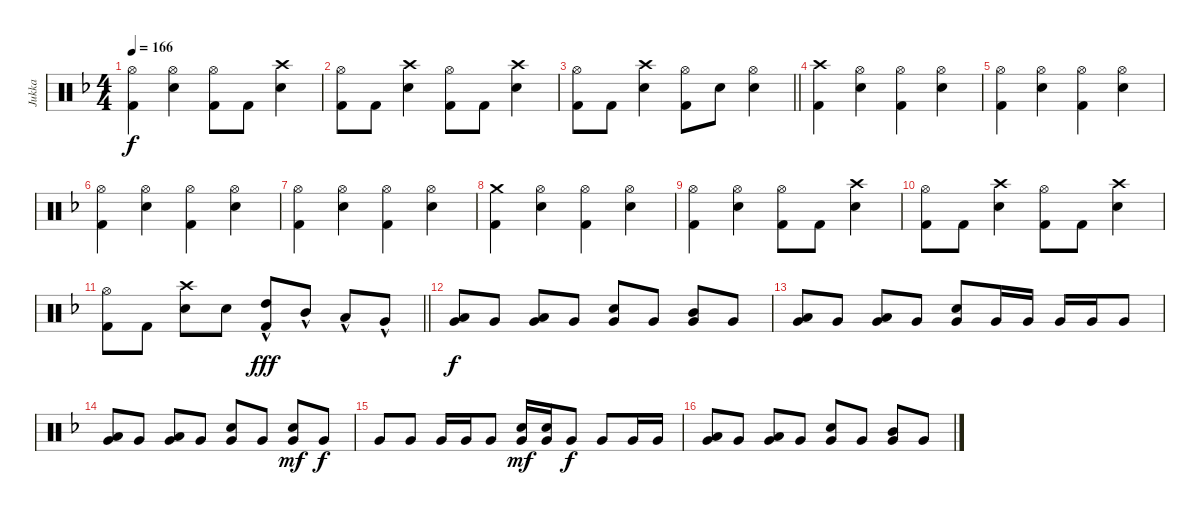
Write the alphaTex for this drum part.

\track ("Jukka" "Jukka") {instrument percussion}
\staff {score}
\articulation defaults
\ts (4 4)
\tempo 166
\clef neutral
\ks f
("Hi-Hat (open)" "Kick (hit) 2").4{dy f} ("Hi-Hat (open)" "Electric Snare (hit)").4 ("Hi-Hat (open)" "Kick (hit) 2").8 "Kick (hit) 2".8 ("Crash high (hit)" "Electric Snare (hit)").4 |
("Hi-Hat (open)" "Kick (hit) 2").8 "Kick (hit) 2".8 ("Crash high (hit)" "Electric Snare (hit)").4 ("Hi-Hat (open)" "Kick (hit) 2").8 "Kick (hit) 2".8 ("Crash high (hit)" "Electric Snare (hit)").4 |
\barLineRight lightlight
("Hi-Hat (open)" "Kick (hit) 2").8 "Kick (hit) 2".8 ("Crash high (hit)" "Electric Snare (hit)").4 ("Hi-Hat (open)" "Kick (hit) 2").8 "Electric Snare (hit)".8 ("Hi-Hat (open)" "Electric Snare (hit)").4 |
\section ("" "")
("Crash high (hit)" "Kick (hit) 2").4 ("Hi-Hat (open)" "Electric Snare (hit)").4 ("Hi-Hat (open)" "Kick (hit) 2").4 ("Hi-Hat (open)" "Electric Snare (hit)").4 |
("Hi-Hat (open)" "Kick (hit) 2").4 ("Hi-Hat (open)" "Electric Snare (hit)").4 ("Hi-Hat (open)" "Kick (hit) 2").4 ("Hi-Hat (open)" "Electric Snare (hit)").4 |
("Hi-Hat (open)" "Kick (hit) 2").4 ("Hi-Hat (open)" "Electric Snare (hit)").4 ("Hi-Hat (open)" "Kick (hit) 2").4 ("Hi-Hat (open)" "Electric Snare (hit)").4 |
("Hi-Hat (open)" "Kick (hit) 2").4 ("Hi-Hat (open)" "Electric Snare (hit)").4 ("Hi-Hat (open)" "Kick (hit) 2").4 ("Hi-Hat (open)" "Electric Snare (hit)").4 |
("Crash medium (hit)" "Kick (hit) 2").4 ("Hi-Hat (open)" "Electric Snare (hit)").4 ("Hi-Hat (open)" "Kick (hit) 2").4 ("Hi-Hat (open)" "Electric Snare (hit)").4 |
("Hi-Hat (open)" "Kick (hit) 2").4 ("Hi-Hat (open)" "Electric Snare (hit)").4 ("Hi-Hat (open)" "Kick (hit) 2").8 "Kick (hit) 2".8 ("Crash high (hit)" "Electric Snare (hit)").4 |
("Hi-Hat (open)" "Kick (hit) 2").8 "Kick (hit) 2".8 ("Crash high (hit)" "Electric Snare (hit)").4 ("Hi-Hat (open)" "Kick (hit) 2").8 "Kick (hit) 2".8 ("Crash high (hit)" "Electric Snare (hit)").4 |
\barLineRight lightlight
("Hi-Hat (open)" "Kick (hit) 2").8 "Kick (hit) 2".8 ("Crash high (hit)" "Electric Snare (hit)").8 "Electric Snare (hit)".8 ("Kick (hit) 2" "High Tom (hit)"{hac}).8{dy fff} "Mid Tom (hit)"{hac}.8 "Low Tom (hit)"{hac}.8 "Very Low Tom (hit)"{hac}.8 |
\section ("" "")
("Very Low Tom (hit)" "Low Floor Tom (hit)").8{dy f} "Very Low Tom (hit)".8 ("Very Low Tom (hit)" "Low Floor Tom (hit)").8 "Very Low Tom (hit)".8 ("Very Low Tom (hit)" "Electric Snare (hit)").8 "Very Low Tom (hit)".8 ("Very Low Tom (hit)" "Mid Tom (hit)").8 "Very Low Tom (hit)".8 |
("Very Low Tom (hit)" "Low Floor Tom (hit)").8 "Very Low Tom (hit)".8 ("Very Low Tom (hit)" "Low Floor Tom (hit)").8 "Very Low Tom (hit)".8 ("Very Low Tom (hit)" "Electric Snare (hit)").8 "Very Low Tom (hit)".16 "Very Low Tom (hit)".16 "Very Low Tom (hit)".16 "Very Low Tom (hit)".16 "Very Low Tom (hit)".8 |
("Very Low Tom (hit)" "Low Floor Tom (hit)").8 "Very Low Tom (hit)".8 ("Very Low Tom (hit)" "Low Floor Tom (hit)").8 "Very Low Tom (hit)".8 ("Very Low Tom (hit)" "Electric Snare (hit)").8 "Very Low Tom (hit)".8 ("Very Low Tom (hit)" "Electric Snare (hit)").8{dy mf} "Very Low Tom (hit)".8{dy f} |
"Very Low Tom (hit)".8 "Very Low Tom (hit)".8 "Very Low Tom (hit)".16 "Very Low Tom (hit)".16 "Very Low Tom (hit)".8 ("Very Low Tom (hit)" "Electric Snare (hit)").16{dy mf} ("Very Low Tom (hit)" "Electric Snare (hit)").16 "Very Low Tom (hit)".8{dy f} "Very Low Tom (hit)".8 "Very Low Tom (hit)".16 "Very Low Tom (hit)".16 |
("Very Low Tom (hit)" "Low Floor Tom (hit)").8 "Very Low Tom (hit)".8 ("Very Low Tom (hit)" "Low Floor Tom (hit)").8 "Very Low Tom (hit)".8 ("Very Low Tom (hit)" "Electric Snare (hit)").8 "Very Low Tom (hit)".8 ("Very Low Tom (hit)" "Mid Tom (hit)").8 "Very Low Tom (hit)".8
